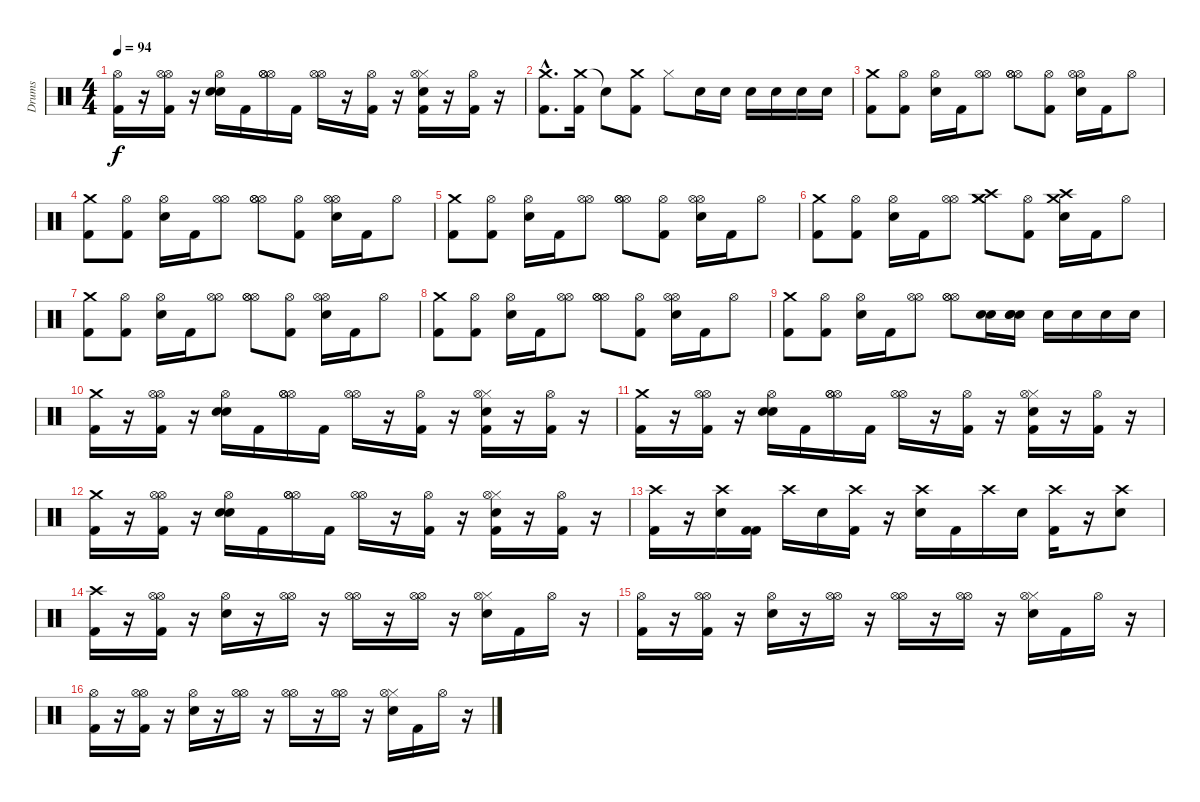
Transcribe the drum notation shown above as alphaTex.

\track ("Drums" "Drums") {instrument percussion}
\staff {score}
\articulation defaults
\ts (4 4)
\tempo 94
\clef neutral
\ks c
("Hi-Hat (open)" "Kick (hit) 2").16{dy f} r.16 ("Hi-Hat (open)" "Hi-Hat (open)" "Kick (hit) 2").16 r.16 ("Hi-Hat (open)" "Snare (hit) 2" "Snare (hit) 2").16 "Kick (hit) 2".16 ("Hi-Hat (open)" "Hi-Hat (open)" "Hi-Hat (open)").16 "Kick (hit) 2".16 ("Hi-Hat (open)" "Hi-Hat (open)").16 r.16 ("Hi-Hat (open)" "Kick (hit) 2").16 r.16 ("Hi-Hat (closed)" "Snare (hit) 2" "Hi-Hat (open)" "Kick (hit) 2").16 r.16 ("Hi-Hat (open)" "Kick (hit) 2").16 r.16 |
("Crash medium (hit)"{hac} "Kick (hit) 2"{hac}).8{d volume 13} ("Crash medium (hit)" "Kick (hit) 2").16 "Snare (hit)"{t}.8 ("Crash medium (hit)" "Kick (hit) 2").8 "Hi-Hat (closed)".8 "Snare (hit) 2".16 "Snare (hit) 2".16 "Snare (hit) 2".16 "Snare (hit) 2".16 "Snare (hit) 2".16 "Snare (hit) 2".16 |
("Crash medium (hit)" "Kick (hit) 2").8 ("Kick (hit) 2" "Hi-Hat (open)").8 ("Hi-Hat (open)" "Snare (hit) 2").16 "Kick (hit) 2".16 ("Hi-Hat (open)" "Hi-Hat (open)").8 ("Hi-Hat (open)" "Hi-Hat (open)" "Hi-Hat (open)").8 ("Hi-Hat (open)" "Kick (hit) 2").8 ("Hi-Hat (open)" "Snare (hit) 2" "Hi-Hat (open)").16 "Kick (hit) 2".16 "Hi-Hat (open)".8 |
("Crash medium (hit)" "Kick (hit) 2").8 ("Kick (hit) 2" "Hi-Hat (open)").8 ("Hi-Hat (open)" "Snare (hit) 2").16 "Kick (hit) 2".16 ("Hi-Hat (open)" "Hi-Hat (open)").8 ("Hi-Hat (open)" "Hi-Hat (open)" "Hi-Hat (open)").8 ("Hi-Hat (open)" "Kick (hit) 2").8 ("Hi-Hat (open)" "Snare (hit) 2" "Hi-Hat (open)").16 "Kick (hit) 2".16 "Hi-Hat (open)".8 |
("Crash medium (hit)" "Kick (hit) 2").8 ("Kick (hit) 2" "Hi-Hat (open)").8 ("Hi-Hat (open)" "Snare (hit) 2").16 "Kick (hit) 2".16 ("Hi-Hat (open)" "Hi-Hat (open)").8 ("Hi-Hat (open)" "Hi-Hat (open)" "Hi-Hat (open)").8 ("Hi-Hat (open)" "Kick (hit) 2").8 ("Hi-Hat (open)" "Snare (hit) 2" "Hi-Hat (open)").16 "Kick (hit) 2".16 "Hi-Hat (open)".8 |
("Crash medium (hit)" "Kick (hit) 2").8 ("Kick (hit) 2" "Hi-Hat (open)").8 ("Hi-Hat (open)" "Snare (hit) 2").16 "Kick (hit) 2".16 ("Hi-Hat (open)" "Hi-Hat (open)").8 ("Crash medium (hit)" "Crash high (hit)" "Crash medium (hit)").8{volume 16} ("Hi-Hat (open)" "Kick (hit) 2").8 ("Crash medium (hit)" "Snare (hit) 2" "Crash high (hit)").16 "Kick (hit) 2".16 "Hi-Hat (open)".8 |
("Crash medium (hit)" "Kick (hit) 2").8{volume 14} ("Kick (hit) 2" "Hi-Hat (open)").8 ("Hi-Hat (open)" "Snare (hit) 2").16 "Kick (hit) 2".16 ("Hi-Hat (open)" "Hi-Hat (open)").8 ("Hi-Hat (open)" "Hi-Hat (open)" "Hi-Hat (open)").8 ("Hi-Hat (open)" "Kick (hit) 2").8 ("Hi-Hat (open)" "Snare (hit) 2" "Hi-Hat (open)").16 "Kick (hit) 2".16 "Hi-Hat (open)".8 |
("Crash medium (hit)" "Kick (hit) 2").8{volume 14} ("Kick (hit) 2" "Hi-Hat (open)").8 ("Hi-Hat (open)" "Snare (hit) 2").16 "Kick (hit) 2".16 ("Hi-Hat (open)" "Hi-Hat (open)").8 ("Hi-Hat (open)" "Hi-Hat (open)" "Hi-Hat (open)").8 ("Hi-Hat (open)" "Kick (hit) 2").8 ("Hi-Hat (open)" "Snare (hit) 2" "Hi-Hat (open)").16 "Kick (hit) 2".16 "Hi-Hat (open)".8 |
("Crash medium (hit)" "Kick (hit) 2").8{volume 14} ("Kick (hit) 2" "Hi-Hat (open)").8 ("Hi-Hat (open)" "Snare (hit) 2").16 "Kick (hit) 2".16 ("Hi-Hat (open)" "Hi-Hat (open)").8 ("Hi-Hat (open)" "Hi-Hat (open)" "Hi-Hat (open)").8 ("Snare (hit) 2" "Snare (hit) 2").16 ("Snare (hit) 2" "Snare (hit) 2" "Snare (hit) 2").16 "Snare (hit) 2".16 "Snare (hit) 2".16 "Snare (hit) 2".16 "Snare (hit) 2".16 |
("Crash medium (hit)" "Kick (hit) 2").16{volume 16} r.16 ("Hi-Hat (open)" "Hi-Hat (open)" "Kick (hit) 2").16 r.16 ("Hi-Hat (open)" "Snare (hit) 2" "Snare (hit) 2").16 "Kick (hit) 2".16 ("Hi-Hat (open)" "Hi-Hat (open)" "Hi-Hat (open)").16 "Kick (hit) 2".16 ("Hi-Hat (open)" "Hi-Hat (open)").16 r.16 ("Hi-Hat (open)" "Kick (hit) 2").16 r.16 ("Hi-Hat (closed)" "Snare (hit) 2" "Hi-Hat (open)" "Kick (hit) 2").16 r.16 ("Hi-Hat (open)" "Kick (hit) 2").16 r.16 |
("Crash medium (hit)" "Kick (hit) 2").16 r.16 ("Hi-Hat (open)" "Hi-Hat (open)" "Kick (hit) 2").16 r.16 ("Hi-Hat (open)" "Snare (hit) 2" "Snare (hit) 2").16 "Kick (hit) 2".16 ("Hi-Hat (open)" "Hi-Hat (open)" "Hi-Hat (open)").16 "Kick (hit) 2".16 ("Hi-Hat (open)" "Hi-Hat (open)").16 r.16 ("Hi-Hat (open)" "Kick (hit) 2").16 r.16 ("Hi-Hat (closed)" "Snare (hit) 2" "Hi-Hat (open)" "Kick (hit) 2").16 r.16 ("Hi-Hat (open)" "Kick (hit) 2").16 r.16 |
("Crash medium (hit)" "Kick (hit) 2").16 r.16 ("Hi-Hat (open)" "Hi-Hat (open)" "Kick (hit) 2").16 r.16 ("Hi-Hat (open)" "Snare (hit) 2" "Snare (hit) 2").16 "Kick (hit) 2".16 ("Hi-Hat (open)" "Hi-Hat (open)" "Hi-Hat (open)").16 "Kick (hit) 2".16 ("Hi-Hat (open)" "Hi-Hat (open)").16 r.16 ("Hi-Hat (open)" "Kick (hit) 2").16 r.16 ("Hi-Hat (closed)" "Snare (hit) 2" "Hi-Hat (open)" "Kick (hit) 2").16 r.16 ("Hi-Hat (open)" "Kick (hit) 2").16 r.16 |
("Crash high (hit)" "Kick (hit) 2").16 r.16 ("Crash high (hit)" "Snare (hit) 2").16 ("Kick (hit) 2" "Kick (hit) 2").16 "Crash high (hit)".16 "Snare (hit) 2".16 ("Crash high (hit)" "Kick (hit) 2").16 r.16 ("Crash high (hit)" "Snare (hit) 2").16 "Kick (hit) 2".16 "Crash high (hit)".16 "Snare (hit) 2".16 ("Kick (hit) 2" "Crash high (hit)").16 r.16 ("Crash high (hit)" "Snare (hit) 2").8 |
("Crash high (hit)" "Kick (hit) 2").16{volume 16} r.16 ("Hi-Hat (open)" "Hi-Hat (open)" "Kick (hit) 2").16 r.16 ("Hi-Hat (open)" "Snare (hit) 2").16 r.16 ("Hi-Hat (open)" "Hi-Hat (open)").16 r.16 ("Hi-Hat (open)" "Hi-Hat (open)").16 r.16 ("Hi-Hat (open)" "Hi-Hat (open)").16 r.16 ("Hi-Hat (closed)" "Snare (hit) 2" "Hi-Hat (open)").16 "Kick (hit) 2".16 "Hi-Hat (open)".16 r.16 |
("Hi-Hat (open)" "Kick (hit) 2").16{volume 16} r.16 ("Hi-Hat (open)" "Hi-Hat (open)" "Kick (hit) 2").16 r.16 ("Hi-Hat (open)" "Snare (hit) 2").16 r.16 ("Hi-Hat (open)" "Hi-Hat (open)").16 r.16 ("Hi-Hat (open)" "Hi-Hat (open)").16 r.16 ("Hi-Hat (open)" "Hi-Hat (open)").16 r.16 ("Hi-Hat (closed)" "Snare (hit) 2" "Hi-Hat (open)").16 "Kick (hit) 2".16 "Hi-Hat (open)".16 r.16 |
("Hi-Hat (open)" "Kick (hit) 2").16{volume 16} r.16 ("Hi-Hat (open)" "Hi-Hat (open)" "Kick (hit) 2").16 r.16 ("Hi-Hat (open)" "Snare (hit) 2").16 r.16 ("Hi-Hat (open)" "Hi-Hat (open)").16 r.16 ("Hi-Hat (open)" "Hi-Hat (open)").16 r.16 ("Hi-Hat (open)" "Hi-Hat (open)").16 r.16 ("Hi-Hat (closed)" "Snare (hit) 2" "Hi-Hat (open)").16 "Kick (hit) 2".16 "Hi-Hat (open)".16 r.16
